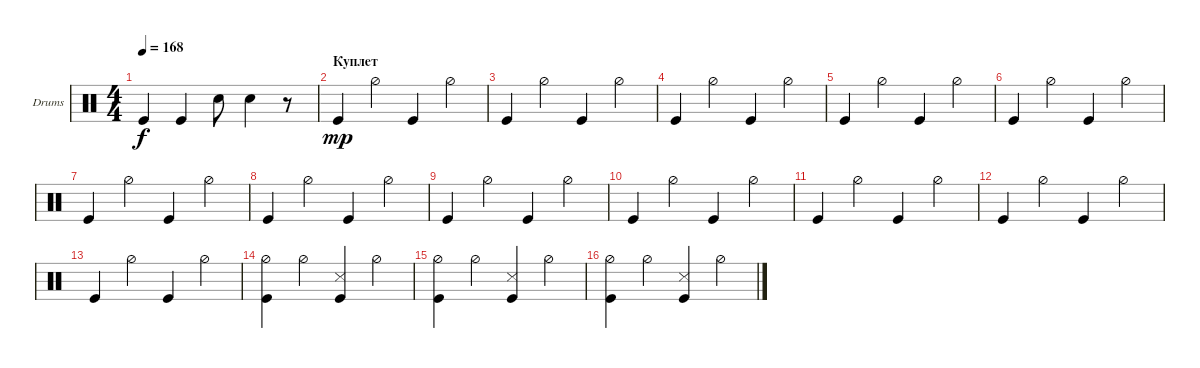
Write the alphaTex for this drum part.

\defaultSystemsLayout 4
\bracketExtendMode groupsimilarinstruments
\firstSystemTrackNameOrientation horizontal
\otherSystemsTrackNameOrientation horizontal
\track ("Е. Кулаков" "Drums") {instrument percussion}
\staff {score}
\articulation defaults
\ts (4 4)
\tempo 168
\clef neutral
\scale
0.333333
\ks c "Kick (hit)".4{dy f} "Kick (hit)".4 "Snare (hit) 2".8 "Snare (hit) 2".4
r.8 |
\section ("" "Куплет ")
\scale
0.333333 "Kick (hit)".4{dy mp} "Hi-Hat (half)".4 "Kick (hit)".4 "Hi-Hat (half)".4 |
\scale
0.333333 "Kick (hit)".4 "Hi-Hat (half)".4 "Kick (hit)".4 "Hi-Hat (half)".4 |
\scale
0.333333 "Kick (hit)".4 "Hi-Hat (half)".4 "Kick (hit)".4 "Hi-Hat (half)".4 |
\scale
0.333333 "Kick (hit)".4 "Hi-Hat (half)".4 "Kick (hit)".4 "Hi-Hat (half)".4 |
\scale
0.333333 "Kick (hit)".4 "Hi-Hat (half)".4 "Kick (hit)".4 "Hi-Hat (half)".4 |
\scale
0.333333 "Kick (hit)".4 "Hi-Hat (half)".4 "Kick (hit)".4 "Hi-Hat (half)".4 |
\scale
0.333333 "Kick (hit)".4 "Hi-Hat (half)".4 "Kick (hit)".4 "Hi-Hat (half)".4 |
\scale
0.333333 "Kick (hit)".4 "Hi-Hat (half)".4 "Kick (hit)".4 "Hi-Hat (half)".4 |
\scale
0.333333 "Kick (hit)".4 "Hi-Hat (half)".4 "Kick (hit)".4 "Hi-Hat (half)".4 |
\scale
0.333333 "Kick (hit)".4 "Hi-Hat (half)".4 "Kick (hit)".4 "Hi-Hat (half)".4 |
\scale
0.333333 "Kick (hit)".4 "Hi-Hat (half)".4 "Kick (hit)".4 "Hi-Hat (half)".4 |
\scale
0.333333 "Kick (hit)".4 "Hi-Hat (half)".4 "Kick (hit)".4 "Hi-Hat (half)".4 |
\scale
0.333333 ("Hi-Hat (half)" "Kick (hit)").4 "Hi-Hat (half)".4 ("Snare (side stick) 3" "Kick (hit)").4 "Hi-Hat (half)".4 |
\scale
0.333333 ("Hi-Hat (half)" "Kick (hit)").4 "Hi-Hat (half)".4 ("Snare (side stick) 3" "Kick (hit)").4 "Hi-Hat (half)".4 |
\scale
0.333333 ("Hi-Hat (half)" "Kick (hit)").4 "Hi-Hat (half)".4 ("Snare (side stick) 3" "Kick (hit)").4 "Hi-Hat (half)".4
